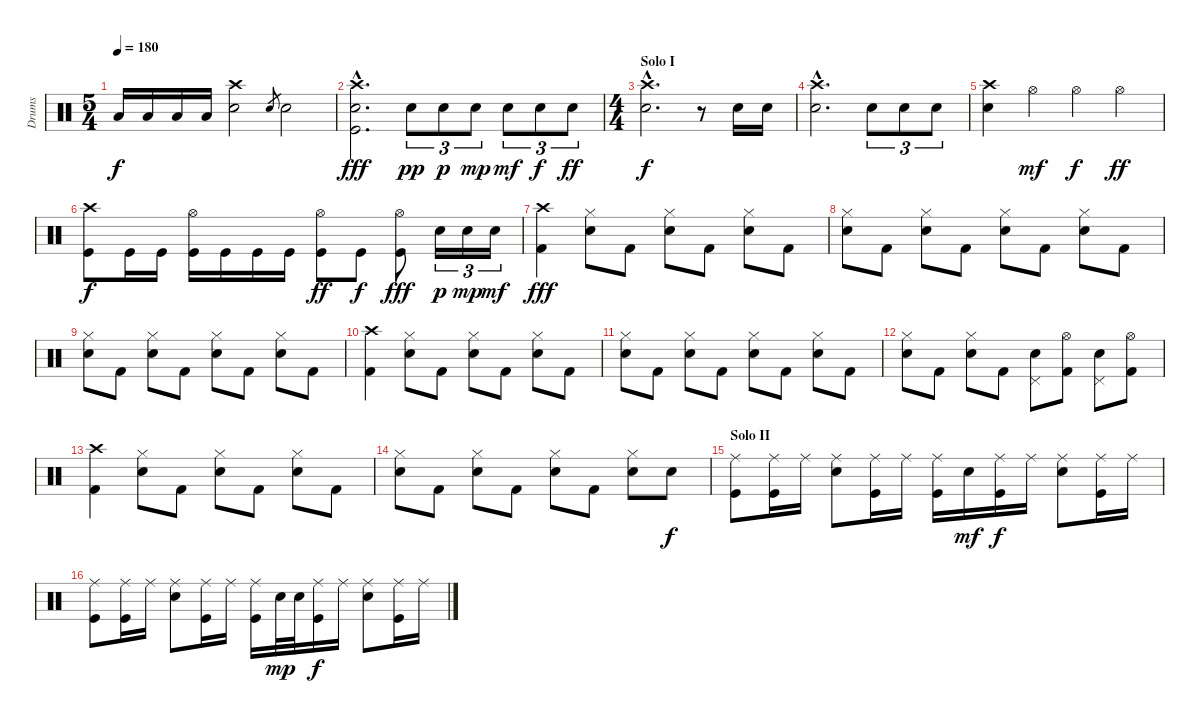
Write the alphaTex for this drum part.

\track ("Drums" "Drums") {instrument percussion}
\staff {score}
\articulation defaults
\ts (5 4)
\tempo 180
\clef neutral
\ks c "Low Floor Tom (hit)".16{dy f} "Low Floor Tom (hit)".16 "Low Floor Tom (hit)".16 "Low Floor Tom (hit)".16
("Crash high (hit)" "Electric Snare (hit)").2 "Electric Snare (hit)".8{gr} "Electric Snare (hit)".2 |
("Crash high (hit)"{hac} "Electric Snare (hit)"{hac} "Kick (hit)"{hac}).2{d dy fff} "Electric Snare (hit)".8{tu (3 2) dy pp} "Electric Snare (hit)".8{tu (3 2) dy p} "Electric Snare (hit)".8{tu (3 2) dy mp} "Electric Snare (hit)".8{tu (3 2) dy mf} "Electric Snare (hit)".8{tu (3 2) dy f} "Electric Snare (hit)".8{tu (3 2) dy ff} |
\ts (4 4)
\section ("" "Solo I")
("Crash high (hit)"{hac} "Electric Snare (hit)"{hac}).2{d dy f} r.8 "Electric Snare (hit)".16 "Electric Snare (hit)".16 |
("Crash high (hit)"{hac} "Electric Snare (hit)"{hac}).2{d} "Electric Snare (hit)".8{tu (3 2)} "Electric Snare (hit)".8{tu (3 2)} "Electric Snare (hit)".8{tu (3 2)} |
("Crash high (hit)" "Electric Snare (hit)").4 "Hi-Hat (open)".4{dy mf} "Hi-Hat (open)".4{dy f} "Hi-Hat (open)".4{dy ff} |
("Crash high (hit)" "Kick (hit)").8{dy f} "Kick (hit)".16 "Kick (hit)".16 ("Hi-Hat (open)" "Kick (hit)").16 "Kick (hit)".16 "Kick (hit)".16 "Kick (hit)".16 ("Hi-Hat (open)" "Kick (hit)").8{dy ff} "Kick (hit)".8{dy f} ("Hi-Hat (open)" "Kick (hit)").8{dy fff} "Electric Snare (hit)".16{tu (3 2) dy p} "Electric Snare (hit)".16{tu (3 2) dy mp} "Electric Snare (hit)".16{tu (3 2) dy mf} |
("Crash high (hit)" "Kick (hit) 2").4{dy fff} ("Hi-Hat (closed)" "Electric Snare (hit)").8 "Kick (hit) 2".8 ("Hi-Hat (closed)" "Electric Snare (hit)").8 "Kick (hit) 2".8 ("Hi-Hat (closed)" "Electric Snare (hit)").8 "Kick (hit) 2".8 |
("Hi-Hat (closed)" "Electric Snare (hit)").8 "Kick (hit) 2".8 ("Hi-Hat (closed)" "Electric Snare (hit)").8 "Kick (hit) 2".8 ("Hi-Hat (closed)" "Electric Snare (hit)").8 "Kick (hit) 2".8 ("Hi-Hat (closed)" "Electric Snare (hit)").8 "Kick (hit) 2".8 |
("Hi-Hat (closed)" "Electric Snare (hit)").8 "Kick (hit) 2".8 ("Hi-Hat (closed)" "Electric Snare (hit)").8 "Kick (hit) 2".8 ("Hi-Hat (closed)" "Electric Snare (hit)").8 "Kick (hit) 2".8 ("Hi-Hat (closed)" "Electric Snare (hit)").8 "Kick (hit) 2".8 |
("Crash high (hit)" "Kick (hit) 2").4 ("Hi-Hat (closed)" "Electric Snare (hit)").8 "Kick (hit) 2".8 ("Hi-Hat (closed)" "Electric Snare (hit)").8 "Kick (hit) 2".8 ("Hi-Hat (closed)" "Electric Snare (hit)").8 "Kick (hit) 2".8 |
("Hi-Hat (closed)" "Electric Snare (hit)").8 "Kick (hit) 2".8 ("Hi-Hat (closed)" "Electric Snare (hit)").8 "Kick (hit) 2".8 ("Hi-Hat (closed)" "Electric Snare (hit)").8 "Kick (hit) 2".8 ("Hi-Hat (closed)" "Electric Snare (hit)").8 "Kick (hit) 2".8 |
("Hi-Hat (closed)" "Electric Snare (hit)").8 "Kick (hit) 2".8 ("Hi-Hat (closed)" "Electric Snare (hit)").8 "Kick (hit) 2".8 ("Pedal Hi-Hat (hit)" "Electric Snare (hit)").8 ("Hi-Hat (open)" "Kick (hit) 2").8 ("Pedal Hi-Hat (hit)" "Electric Snare (hit)").8 ("Hi-Hat (open)" "Kick (hit) 2").8 |
("Crash high (hit)" "Kick (hit) 2").4 ("Hi-Hat (closed)" "Electric Snare (hit)").8 "Kick (hit) 2".8 ("Hi-Hat (closed)" "Electric Snare (hit)").8 "Kick (hit) 2".8 ("Hi-Hat (closed)" "Electric Snare (hit)").8 "Kick (hit) 2".8 |
("Hi-Hat (closed)" "Electric Snare (hit)").8 "Kick (hit) 2".8 ("Hi-Hat (closed)" "Electric Snare (hit)").8 "Kick (hit) 2".8 ("Hi-Hat (closed)" "Electric Snare (hit)").8 "Kick (hit) 2".8 ("Hi-Hat (closed)" "Electric Snare (hit)").8 "Electric Snare (hit)".8{dy f} |
\section ("" "Solo II")
("Ride (middle)" "Kick (hit)").8 ("Ride (middle)" "Kick (hit)").16 "Ride (middle)".16 ("Ride (middle)" "Electric Snare (hit)").8 ("Ride (middle)" "Kick (hit)").16 "Ride (middle)".16 ("Ride (middle)" "Kick (hit)").16 "Electric Snare (hit)".16{dy mf} ("Ride (middle)" "Kick (hit)").16{dy f} "Ride (middle)".16 ("Ride (middle)" "Electric Snare (hit)").8 ("Ride (middle)" "Kick (hit)").16 "Ride (middle)".16 |
("Ride (middle)" "Kick (hit)").8 ("Ride (middle)" "Kick (hit)").16 "Ride (middle)".16 ("Ride (middle)" "Electric Snare (hit)").8 ("Ride (middle)" "Kick (hit)").16 "Ride (middle)".16 ("Ride (middle)" "Kick (hit)").16 "Electric Snare (hit)".32{dy mp} "Electric Snare (hit)".32 ("Ride (middle)" "Kick (hit)").16{dy f} "Ride (middle)".16 ("Ride (middle)" "Electric Snare (hit)").8 ("Ride (middle)" "Kick (hit)").16 "Ride (middle)".16
